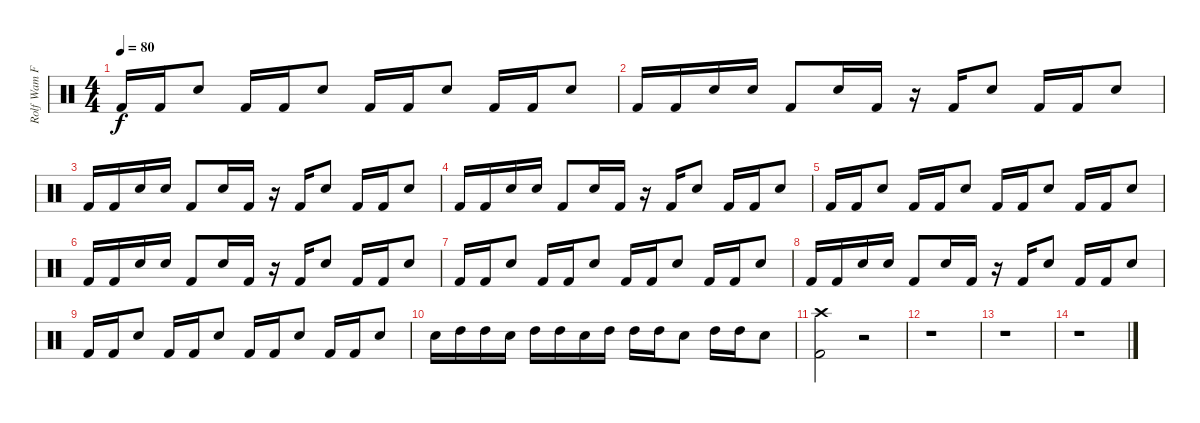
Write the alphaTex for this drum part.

\track ("Rolf Wam Fjell" "Rolf Wam F") {instrument percussion}
\staff {score}
\articulation defaults
\ts (4 4)
\tempo 80
\clef neutral
\ks c "Kick (hit) 2".16{dy f} "Kick (hit) 2".16 "Snare (hit) 2".8 "Kick (hit) 2".16 "Kick (hit) 2".16 "Snare (hit) 2".8 "Kick (hit) 2".16 "Kick (hit) 2".16 "Snare (hit) 2".8 "Kick (hit) 2".16 "Kick (hit) 2".16 "Snare (hit) 2".8
|
"Kick (hit) 2".16 "Kick (hit) 2".16 "Snare (hit) 2".16 "Snare (hit) 2".16 "Kick (hit) 2".8 "Snare (hit) 2".16 "Kick (hit) 2".16 r.16 "Kick (hit) 2".16 "Snare (hit) 2".8 "Kick (hit) 2".16 "Kick (hit) 2".16 "Snare (hit) 2".8 |
"Kick (hit) 2".16 "Kick (hit) 2".16 "Snare (hit) 2".16 "Snare (hit) 2".16 "Kick (hit) 2".8 "Snare (hit) 2".16 "Kick (hit) 2".16 r.16 "Kick (hit) 2".16 "Snare (hit) 2".8 "Kick (hit) 2".16 "Kick (hit) 2".16 "Snare (hit) 2".8 |
"Kick (hit) 2".16 "Kick (hit) 2".16 "Snare (hit) 2".16 "Snare (hit) 2".16 "Kick (hit) 2".8 "Snare (hit) 2".16 "Kick (hit) 2".16 r.16 "Kick (hit) 2".16 "Snare (hit) 2".8 "Kick (hit) 2".16 "Kick (hit) 2".16 "Snare (hit) 2".8 |
"Kick (hit) 2".16 "Kick (hit) 2".16 "Snare (hit) 2".8 "Kick (hit) 2".16 "Kick (hit) 2".16 "Snare (hit) 2".8 "Kick (hit) 2".16 "Kick (hit) 2".16 "Snare (hit) 2".8 "Kick (hit) 2".16 "Kick (hit) 2".16 "Snare (hit) 2".8 |
"Kick (hit) 2".16 "Kick (hit) 2".16 "Snare (hit) 2".16 "Snare (hit) 2".16 "Kick (hit) 2".8 "Snare (hit) 2".16 "Kick (hit) 2".16 r.16 "Kick (hit) 2".16 "Snare (hit) 2".8 "Kick (hit) 2".16 "Kick (hit) 2".16 "Snare (hit) 2".8 |
"Kick (hit) 2".16 "Kick (hit) 2".16 "Snare (hit) 2".8 "Kick (hit) 2".16 "Kick (hit) 2".16 "Snare (hit) 2".8 "Kick (hit) 2".16 "Kick (hit) 2".16 "Snare (hit) 2".8 "Kick (hit) 2".16 "Kick (hit) 2".16 "Snare (hit) 2".8 |
"Kick (hit) 2".16 "Kick (hit) 2".16 "Snare (hit) 2".16 "Snare (hit) 2".16 "Kick (hit) 2".8 "Snare (hit) 2".16 "Kick (hit) 2".16 r.16 "Kick (hit) 2".16 "Snare (hit) 2".8 "Kick (hit) 2".16 "Kick (hit) 2".16 "Snare (hit) 2".8 |
"Kick (hit) 2".16 "Kick (hit) 2".16 "Snare (hit) 2".8 "Kick (hit) 2".16 "Kick (hit) 2".16 "Snare (hit) 2".8 "Kick (hit) 2".16 "Kick (hit) 2".16 "Snare (hit) 2".8 "Kick (hit) 2".16 "Kick (hit) 2".16 "Snare (hit) 2".8 |
"Snare (hit) 2".16 "High Tom (hit)".16 "High Tom (hit)".16 "Snare (hit) 2".16 "High Tom (hit)".16 "High Tom (hit)".16 "Snare (hit) 2".16 "High Tom (hit)".16 "High Tom (hit)".16 "High Tom (hit)".16 "Snare (hit) 2".8 "High Tom (hit)".16 "High Tom (hit)".16 "Snare (hit) 2".8 |
("Kick (hit) 2" "Crash high (hit)").2 r.2 |
r.1 |
r.1 |
r.1
